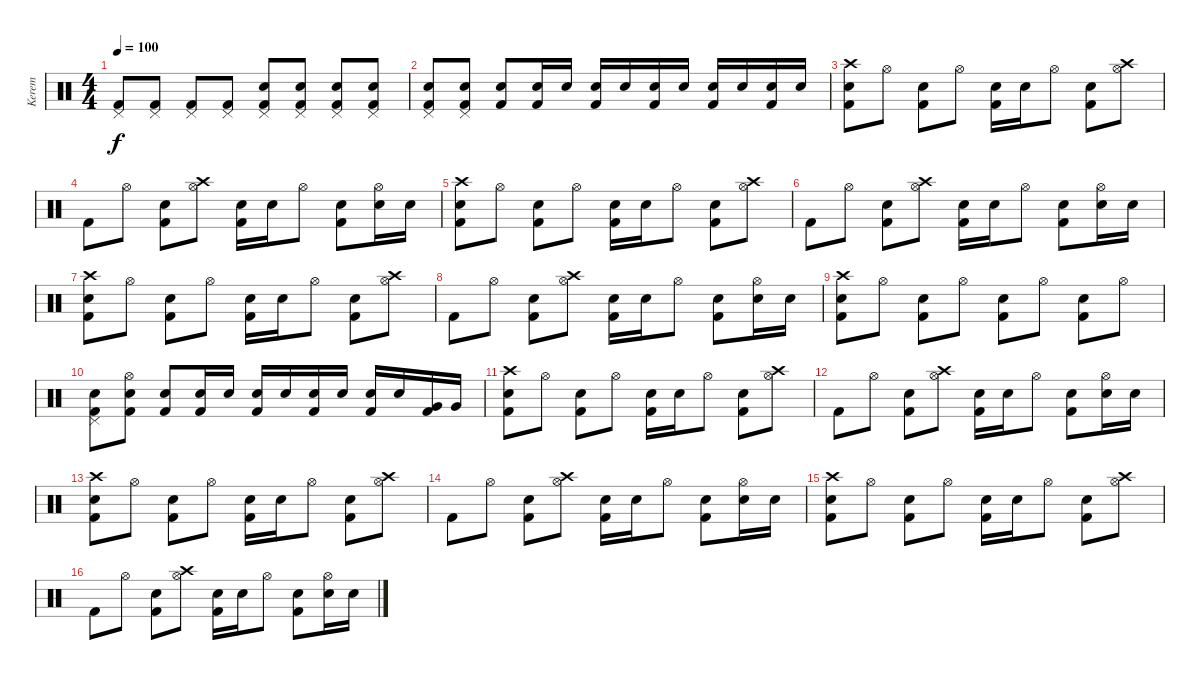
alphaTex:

\track ("Kerem" "Kerem") {instrument percussion}
\staff {score}
\articulation defaults
\ts (4 4)
\tempo 100
\clef neutral
\ks c
("Pedal Hi-Hat (hit)" "Kick (hit) 2").8{dy f} ("Pedal Hi-Hat (hit)" "Kick (hit) 2").8 ("Pedal Hi-Hat (hit)" "Kick (hit) 2").8 ("Pedal Hi-Hat (hit)" "Kick (hit) 2").8 ("Pedal Hi-Hat (hit)" "Electric Snare (hit)" "Kick (hit) 2").8 ("Pedal Hi-Hat (hit)" "Electric Snare (hit)" "Kick (hit) 2").8 ("Pedal Hi-Hat (hit)" "Electric Snare (hit)" "Kick (hit) 2").8 ("Pedal Hi-Hat (hit)" "Electric Snare (hit)" "Kick (hit) 2").8 |
("Pedal Hi-Hat (hit)" "Electric Snare (hit)" "Kick (hit) 2").8 ("Pedal Hi-Hat (hit)" "Electric Snare (hit)" "Kick (hit) 2").8 ("Electric Snare (hit)" "Kick (hit) 2").8 ("Electric Snare (hit)" "Kick (hit) 2").16 "Electric Snare (hit)".16 ("Electric Snare (hit)" "Kick (hit) 2").16 "Electric Snare (hit)".16 ("Electric Snare (hit)" "Kick (hit) 2").16 "Electric Snare (hit)".16 ("Electric Snare (hit)" "Kick (hit) 2").16 "Electric Snare (hit)".16 ("Electric Snare (hit)" "Kick (hit) 2").16 "Electric Snare (hit)".16 |
("Crash high (hit)" "Electric Snare (hit)" "Kick (hit) 2").8 "Hi-Hat (open)".8 ("Electric Snare (hit)" "Kick (hit) 2").8 "Hi-Hat (open)".8 ("Electric Snare (hit)" "Kick (hit) 2").16 "Electric Snare (hit)".16 "Hi-Hat (open)".8 ("Electric Snare (hit)" "Kick (hit) 2").8 ("Crash high (hit)" "Hi-Hat (open)").8 |
"Kick (hit) 2".8 "Hi-Hat (open)".8 ("Electric Snare (hit)" "Kick (hit) 2").8 ("Crash high (hit)" "Hi-Hat (open)").8 ("Electric Snare (hit)" "Kick (hit) 2").16 "Electric Snare (hit)".16 "Hi-Hat (open)".8 ("Electric Snare (hit)" "Kick (hit) 2").8 ("Electric Snare (hit)" "Hi-Hat (open)").16 "Electric Snare (hit)".16 |
("Crash high (hit)" "Electric Snare (hit)" "Kick (hit) 2").8 "Hi-Hat (open)".8 ("Electric Snare (hit)" "Kick (hit) 2").8 "Hi-Hat (open)".8 ("Electric Snare (hit)" "Kick (hit) 2").16 "Electric Snare (hit)".16 "Hi-Hat (open)".8 ("Electric Snare (hit)" "Kick (hit) 2").8 ("Crash high (hit)" "Hi-Hat (open)").8 |
"Kick (hit) 2".8 "Hi-Hat (open)".8 ("Electric Snare (hit)" "Kick (hit) 2").8 ("Crash high (hit)" "Hi-Hat (open)").8 ("Electric Snare (hit)" "Kick (hit) 2").16 "Electric Snare (hit)".16 "Hi-Hat (open)".8 ("Electric Snare (hit)" "Kick (hit) 2").8 ("Electric Snare (hit)" "Hi-Hat (open)").16 "Electric Snare (hit)".16 |
("Crash high (hit)" "Electric Snare (hit)" "Kick (hit) 2").8 "Hi-Hat (open)".8 ("Electric Snare (hit)" "Kick (hit) 2").8 "Hi-Hat (open)".8 ("Electric Snare (hit)" "Kick (hit) 2").16 "Electric Snare (hit)".16 "Hi-Hat (open)".8 ("Electric Snare (hit)" "Kick (hit) 2").8 ("Crash high (hit)" "Hi-Hat (open)").8 |
"Kick (hit) 2".8 "Hi-Hat (open)".8 ("Electric Snare (hit)" "Kick (hit) 2").8 ("Crash high (hit)" "Hi-Hat (open)").8 ("Electric Snare (hit)" "Kick (hit) 2").16 "Electric Snare (hit)".16 "Hi-Hat (open)".8 ("Electric Snare (hit)" "Kick (hit) 2").8 ("Electric Snare (hit)" "Hi-Hat (open)").16 "Electric Snare (hit)".16 |
("Crash high (hit)" "Electric Snare (hit)" "Kick (hit) 2").8 "Hi-Hat (open)".8 ("Electric Snare (hit)" "Kick (hit) 2").8 "Hi-Hat (open)".8 ("Electric Snare (hit)" "Kick (hit) 2").8 "Hi-Hat (open)".8 ("Electric Snare (hit)" "Kick (hit) 2").8 "Hi-Hat (open)".8 |
("Pedal Hi-Hat (hit)" "Electric Snare (hit)" "Kick (hit) 2").8 ("Electric Snare (hit)" "Hi-Hat (open)" "Kick (hit) 2").8 ("Electric Snare (hit)" "Kick (hit) 2").8 ("Electric Snare (hit)" "Kick (hit) 2").16 "Electric Snare (hit)".16 ("Electric Snare (hit)" "Kick (hit) 2").16 "Electric Snare (hit)".16 ("Electric Snare (hit)" "Kick (hit) 2").16 "Electric Snare (hit)".16 ("Electric Snare (hit)" "Kick (hit) 2").16 "Electric Snare (hit)".16 ("Very Low Tom (hit)" "Kick (hit) 2").16 "Very Low Tom (hit)".16 |
("Crash high (hit)" "Electric Snare (hit)" "Kick (hit) 2").8 "Hi-Hat (open)".8 ("Electric Snare (hit)" "Kick (hit) 2").8 "Hi-Hat (open)".8 ("Electric Snare (hit)" "Kick (hit) 2").16 "Electric Snare (hit)".16 "Hi-Hat (open)".8 ("Electric Snare (hit)" "Kick (hit) 2").8 ("Crash high (hit)" "Hi-Hat (open)").8 |
"Kick (hit) 2".8 "Hi-Hat (open)".8 ("Electric Snare (hit)" "Kick (hit) 2").8 ("Crash high (hit)" "Hi-Hat (open)").8 ("Electric Snare (hit)" "Kick (hit) 2").16 "Electric Snare (hit)".16 "Hi-Hat (open)".8 ("Electric Snare (hit)" "Kick (hit) 2").8 ("Electric Snare (hit)" "Hi-Hat (open)").16 "Electric Snare (hit)".16 |
("Crash high (hit)" "Electric Snare (hit)" "Kick (hit) 2").8 "Hi-Hat (open)".8 ("Electric Snare (hit)" "Kick (hit) 2").8 "Hi-Hat (open)".8 ("Electric Snare (hit)" "Kick (hit) 2").16 "Electric Snare (hit)".16 "Hi-Hat (open)".8 ("Electric Snare (hit)" "Kick (hit) 2").8 ("Crash high (hit)" "Hi-Hat (open)").8 |
"Kick (hit) 2".8 "Hi-Hat (open)".8 ("Electric Snare (hit)" "Kick (hit) 2").8 ("Crash high (hit)" "Hi-Hat (open)").8 ("Electric Snare (hit)" "Kick (hit) 2").16 "Electric Snare (hit)".16 "Hi-Hat (open)".8 ("Electric Snare (hit)" "Kick (hit) 2").8 ("Electric Snare (hit)" "Hi-Hat (open)").16 "Electric Snare (hit)".16 |
("Crash high (hit)" "Electric Snare (hit)" "Kick (hit) 2").8 "Hi-Hat (open)".8 ("Electric Snare (hit)" "Kick (hit) 2").8 "Hi-Hat (open)".8 ("Electric Snare (hit)" "Kick (hit) 2").16 "Electric Snare (hit)".16 "Hi-Hat (open)".8 ("Electric Snare (hit)" "Kick (hit) 2").8 ("Crash high (hit)" "Hi-Hat (open)").8 |
"Kick (hit) 2".8 "Hi-Hat (open)".8 ("Electric Snare (hit)" "Kick (hit) 2").8 ("Crash high (hit)" "Hi-Hat (open)").8 ("Electric Snare (hit)" "Kick (hit) 2").16 "Electric Snare (hit)".16 "Hi-Hat (open)".8 ("Electric Snare (hit)" "Kick (hit) 2").8 ("Electric Snare (hit)" "Hi-Hat (open)").16 "Electric Snare (hit)".16
